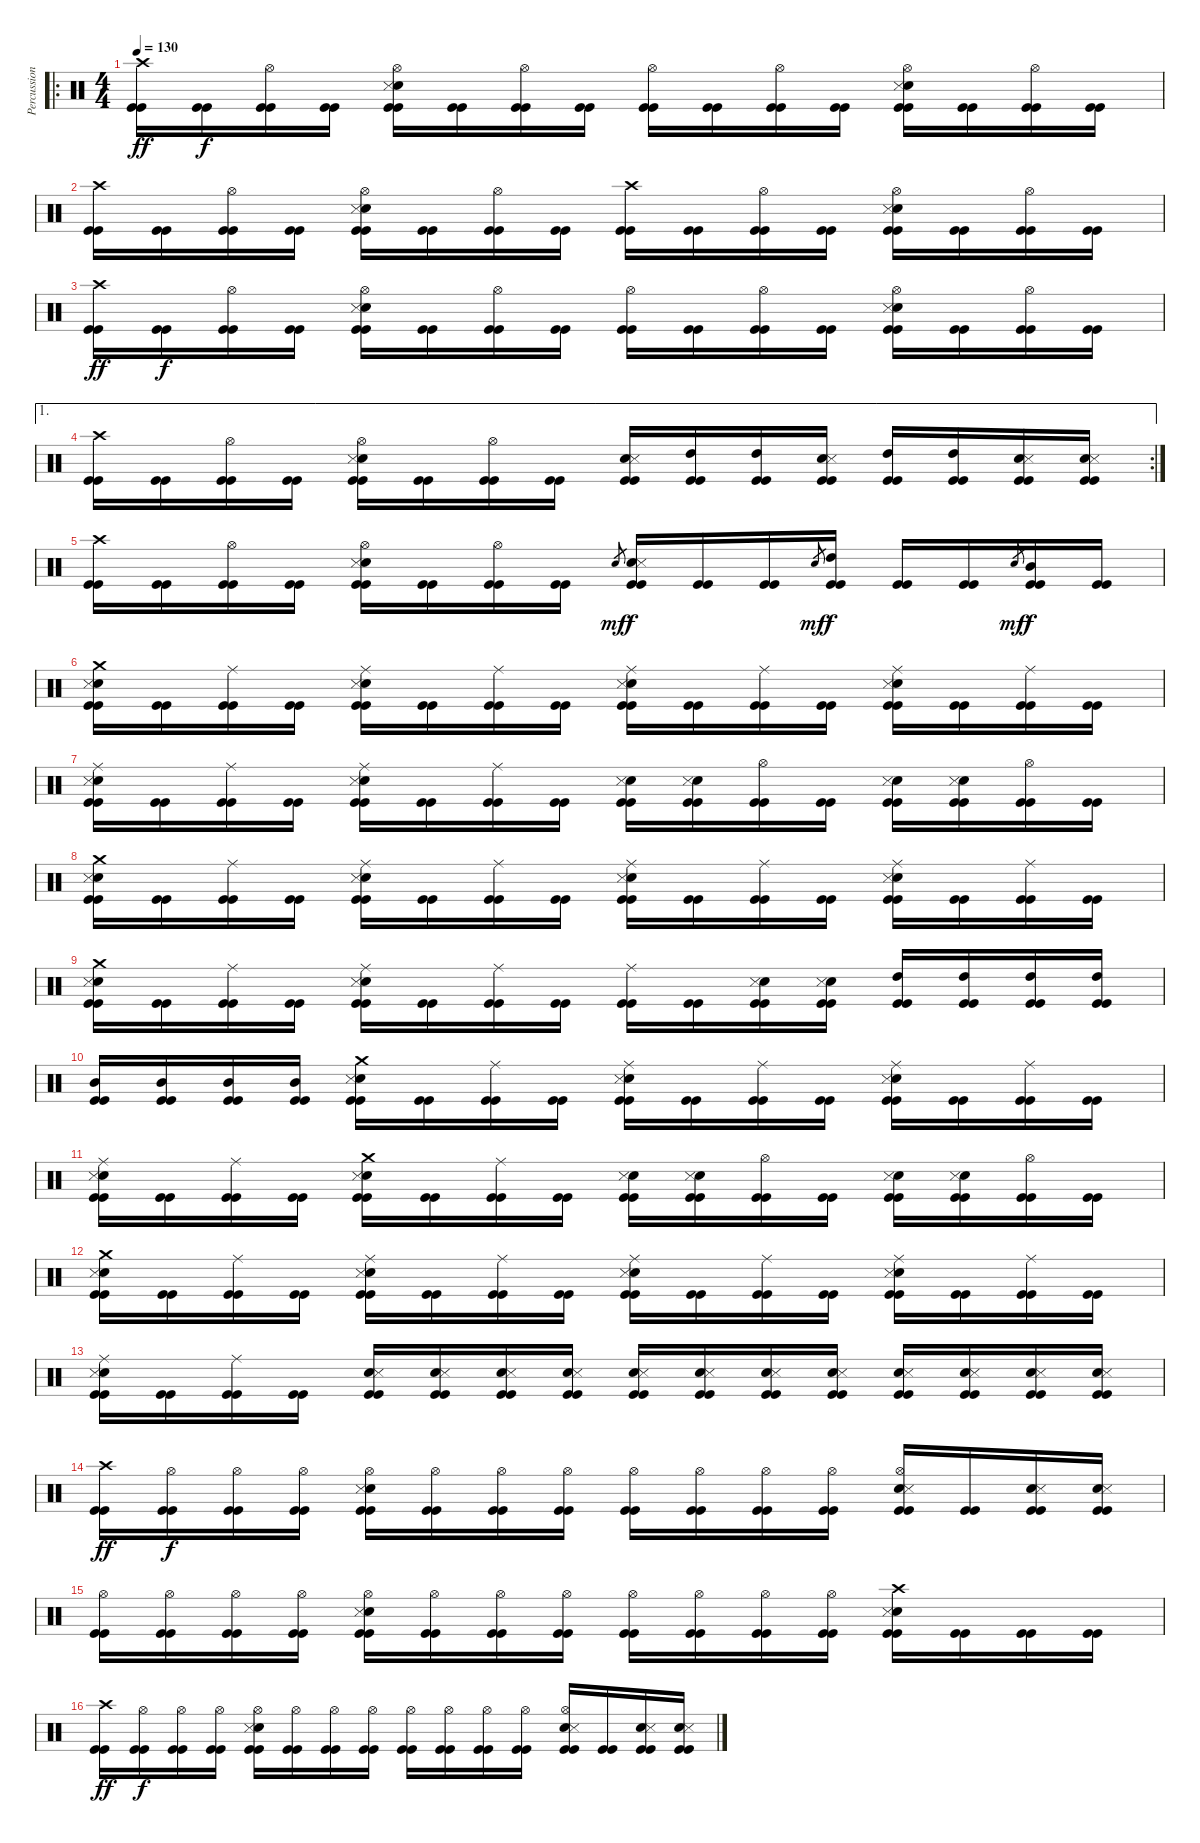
\track ("Percussion" "Percussion") {instrument percussion}
\staff {score}
\articulation defaults
\ro
\ts (4 4)
\tempo 130
\clef neutral
\ks c
("Crash high (hit)" "Kick (hit)" "Kick (hit)").16{dy ff} ("Kick (hit)" "Kick (hit)").16{dy f} ("Hi-Hat (open)" "Kick (hit)" "Kick (hit)").16 ("Kick (hit)" "Kick (hit)").16 ("Snare (hit) 2" "Snare (side stick) 3" "Hi-Hat (open)" "Kick (hit)" "Kick (hit)").16 ("Kick (hit)" "Kick (hit)").16 ("Hi-Hat (open)" "Kick (hit)" "Kick (hit)").16 ("Kick (hit)" "Kick (hit)").16 ("Hi-Hat (open)" "Kick (hit)" "Kick (hit)").16 ("Kick (hit)" "Kick (hit)").16 ("Hi-Hat (open)" "Kick (hit)" "Kick (hit)").16 ("Kick (hit)" "Kick (hit)").16 ("Snare (hit) 2" "Snare (side stick) 3" "Hi-Hat (open)" "Kick (hit)" "Kick (hit)").16 ("Kick (hit)" "Kick (hit)").16 ("Hi-Hat (open)" "Kick (hit)" "Kick (hit)").16 ("Kick (hit)" "Kick (hit)").16 |
("Crash high (hit)" "Kick (hit)" "Kick (hit)").16 ("Kick (hit)" "Kick (hit)").16 ("Hi-Hat (open)" "Kick (hit)" "Kick (hit)").16 ("Kick (hit)" "Kick (hit)").16 ("Snare (hit) 2" "Snare (side stick) 3" "Hi-Hat (open)" "Kick (hit)" "Kick (hit)").16 ("Kick (hit)" "Kick (hit)").16 ("Hi-Hat (open)" "Kick (hit)" "Kick (hit)").16 ("Kick (hit)" "Kick (hit)").16 ("Crash high (hit)" "Kick (hit)" "Kick (hit)").16 ("Kick (hit)" "Kick (hit)").16 ("Hi-Hat (open)" "Kick (hit)" "Kick (hit)").16 ("Kick (hit)" "Kick (hit)").16 ("Snare (hit) 2" "Snare (side stick) 3" "Hi-Hat (open)" "Kick (hit)" "Kick (hit)").16 ("Kick (hit)" "Kick (hit)").16 ("Hi-Hat (open)" "Kick (hit)" "Kick (hit)").16 ("Kick (hit)" "Kick (hit)").16 |
("Crash high (hit)" "Kick (hit)" "Kick (hit)").16{dy ff} ("Kick (hit)" "Kick (hit)").16{dy f} ("Hi-Hat (open)" "Kick (hit)" "Kick (hit)").16 ("Kick (hit)" "Kick (hit)").16 ("Snare (hit) 2" "Snare (side stick) 3" "Hi-Hat (open)" "Kick (hit)" "Kick (hit)").16 ("Kick (hit)" "Kick (hit)").16 ("Hi-Hat (open)" "Kick (hit)" "Kick (hit)").16 ("Kick (hit)" "Kick (hit)").16 ("Hi-Hat (open)" "Kick (hit)" "Kick (hit)").16 ("Kick (hit)" "Kick (hit)").16 ("Hi-Hat (open)" "Kick (hit)" "Kick (hit)").16 ("Kick (hit)" "Kick (hit)").16 ("Snare (hit) 2" "Snare (side stick) 3" "Hi-Hat (open)" "Kick (hit)" "Kick (hit)").16 ("Kick (hit)" "Kick (hit)").16 ("Hi-Hat (open)" "Kick (hit)" "Kick (hit)").16 ("Kick (hit)" "Kick (hit)").16 |
\ae 1
\rc 2
("Crash high (hit)" "Kick (hit)" "Kick (hit)").16 ("Kick (hit)" "Kick (hit)").16 ("Hi-Hat (open)" "Kick (hit)" "Kick (hit)").16 ("Kick (hit)" "Kick (hit)").16 ("Snare (hit) 2" "Snare (side stick) 3" "Hi-Hat (open)" "Kick (hit)" "Kick (hit)").16 ("Kick (hit)" "Kick (hit)").16 ("Hi-Hat (open)" "Kick (hit)" "Kick (hit)").16 ("Kick (hit)" "Kick (hit)").16 ("Snare (hit) 2" "Snare (side stick) 3" "Kick (hit)" "Kick (hit)").16 ("High Tom (hit)" "Kick (hit)" "Kick (hit)").16 ("High Tom (hit)" "Kick (hit)" "Kick (hit)").16 ("Snare (hit) 2" "Snare (side stick) 3" "Kick (hit)" "Kick (hit)").16 ("High Tom (hit)" "Kick (hit)" "Kick (hit)").16 ("High Tom (hit)" "Kick (hit)" "Kick (hit)").16 ("Snare (hit) 2" "Snare (side stick) 3" "Kick (hit)" "Kick (hit)").16 ("Snare (hit) 2" "Snare (side stick) 3" "Kick (hit)" "Kick (hit)").16 |
("Crash high (hit)" "Kick (hit)" "Kick (hit)").16 ("Kick (hit)" "Kick (hit)").16 ("Hi-Hat (open)" "Kick (hit)" "Kick (hit)").16 ("Kick (hit)" "Kick (hit)").16 ("Snare (hit) 2" "Snare (side stick) 3" "Hi-Hat (open)" "Kick (hit)" "Kick (hit)").16 ("Kick (hit)" "Kick (hit)").16 ("Hi-Hat (open)" "Kick (hit)" "Kick (hit)").16 ("Kick (hit)" "Kick (hit)").16 "Snare (hit)".8{gr dy mf} ("Snare (hit) 2" "Snare (side stick) 3" "Kick (hit)" "Kick (hit)").16{dy f} ("Kick (hit)" "Kick (hit)").16 ("Kick (hit)" "Kick (hit)").16 "Snare (hit)".8{gr dy mf} ("High Tom (hit)" "Kick (hit)" "Kick (hit)").16{dy f} ("Kick (hit)" "Kick (hit)").16 ("Kick (hit)" "Kick (hit)").16 "Snare (hit)".8{gr dy mf} ("Mid Tom (hit)" "Kick (hit)" "Kick (hit)").16{dy f} ("Kick (hit)" "Kick (hit)").16 |
("Snare (hit) 2" "Snare (side stick) 3" "Crash medium (hit)" "Kick (hit)" "Kick (hit)").16 ("Kick (hit)" "Kick (hit)").16 ("Ride (middle)" "Kick (hit)" "Kick (hit)").16 ("Kick (hit)" "Kick (hit)").16 ("Snare (hit) 2" "Snare (side stick) 3" "Ride (middle)" "Kick (hit)" "Kick (hit)").16 ("Kick (hit)" "Kick (hit)").16 ("Ride (middle)" "Kick (hit)" "Kick (hit)").16 ("Kick (hit)" "Kick (hit)").16 ("Snare (hit) 2" "Snare (side stick) 3" "Ride (middle)" "Kick (hit)" "Kick (hit)").16 ("Kick (hit)" "Kick (hit)").16 ("Ride (middle)" "Kick (hit)" "Kick (hit)").16 ("Kick (hit)" "Kick (hit)").16 ("Snare (hit) 2" "Snare (side stick) 3" "Ride (middle)" "Kick (hit)" "Kick (hit)").16 ("Kick (hit)" "Kick (hit)").16 ("Ride (middle)" "Kick (hit)" "Kick (hit)").16 ("Kick (hit)" "Kick (hit)").16 |
("Snare (hit) 2" "Snare (side stick) 3" "Ride (middle)" "Kick (hit)" "Kick (hit)").16 ("Kick (hit)" "Kick (hit)").16 ("Ride (middle)" "Kick (hit)" "Kick (hit)").16 ("Kick (hit)" "Kick (hit)").16 ("Snare (hit) 2" "Snare (side stick) 3" "Ride (middle)" "Kick (hit)" "Kick (hit)").16 ("Kick (hit)" "Kick (hit)").16 ("Ride (middle)" "Kick (hit)" "Kick (hit)").16 ("Kick (hit)" "Kick (hit)").16 ("Snare (hit) 2" "Snare (side stick) 3" "Kick (hit)" "Kick (hit)").16 ("Snare (hit) 2" "Snare (side stick) 3" "Kick (hit)" "Kick (hit)").16 ("Hi-Hat (open)" "Kick (hit)" "Kick (hit)").16 ("Kick (hit)" "Kick (hit)").16 ("Snare (hit) 2" "Snare (side stick) 3" "Kick (hit)" "Kick (hit)").16 ("Snare (hit) 2" "Snare (side stick) 3" "Kick (hit)" "Kick (hit)").16 ("Hi-Hat (open)" "Kick (hit)" "Kick (hit)").16 ("Kick (hit)" "Kick (hit)").16 |
("Snare (hit) 2" "Snare (side stick) 3" "Crash medium (hit)" "Kick (hit)" "Kick (hit)").16 ("Kick (hit)" "Kick (hit)").16 ("Ride (middle)" "Kick (hit)" "Kick (hit)").16 ("Kick (hit)" "Kick (hit)").16 ("Snare (hit) 2" "Snare (side stick) 3" "Ride (middle)" "Kick (hit)" "Kick (hit)").16 ("Kick (hit)" "Kick (hit)").16 ("Ride (middle)" "Kick (hit)" "Kick (hit)").16 ("Kick (hit)" "Kick (hit)").16 ("Snare (hit) 2" "Snare (side stick) 3" "Ride (middle)" "Kick (hit)" "Kick (hit)").16 ("Kick (hit)" "Kick (hit)").16 ("Ride (middle)" "Kick (hit)" "Kick (hit)").16 ("Kick (hit)" "Kick (hit)").16 ("Snare (hit) 2" "Snare (side stick) 3" "Ride (middle)" "Kick (hit)" "Kick (hit)").16 ("Kick (hit)" "Kick (hit)").16 ("Ride (middle)" "Kick (hit)" "Kick (hit)").16 ("Kick (hit)" "Kick (hit)").16 |
("Kick (hit)" "Crash medium (hit)" "Snare (hit) 2" "Snare (side stick) 3" "Kick (hit)").16 ("Kick (hit)" "Kick (hit)").16 ("Ride (middle)" "Kick (hit)" "Kick (hit)").16 ("Kick (hit)" "Kick (hit)").16 ("Kick (hit)" "Ride (middle)" "Snare (hit) 2" "Snare (side stick) 3" "Kick (hit)").16 ("Kick (hit)" "Kick (hit)").16 ("Ride (middle)" "Kick (hit)" "Kick (hit)").16 ("Kick (hit)" "Kick (hit)").16 ("Ride (middle)" "Kick (hit)" "Kick (hit)").16 ("Kick (hit)" "Kick (hit)").16 ("Snare (hit) 2" "Snare (side stick) 3" "Kick (hit)" "Kick (hit)").16 ("Snare (hit) 2" "Snare (side stick) 3" "Kick (hit)" "Kick (hit)").16 ("High Tom (hit)" "Kick (hit)" "Kick (hit)").16 ("High Tom (hit)" "Kick (hit)" "Kick (hit)").16 ("High Tom (hit)" "Kick (hit)" "Kick (hit)").16 ("High Tom (hit)" "Kick (hit)" "Kick (hit)").16 |
("Mid Tom (hit)" "Kick (hit)" "Kick (hit)").16 ("Mid Tom (hit)" "Kick (hit)" "Kick (hit)").16 ("Mid Tom (hit)" "Kick (hit)" "Kick (hit)").16 ("Mid Tom (hit)" "Kick (hit)" "Kick (hit)").16 ("Snare (hit) 2" "Snare (side stick) 3" "Crash medium (hit)" "Kick (hit)" "Kick (hit)").16 ("Kick (hit)" "Kick (hit)").16 ("Ride (middle)" "Kick (hit)" "Kick (hit)").16 ("Kick (hit)" "Kick (hit)").16 ("Snare (hit) 2" "Snare (side stick) 3" "Ride (middle)" "Kick (hit)" "Kick (hit)").16 ("Kick (hit)" "Kick (hit)").16 ("Ride (middle)" "Kick (hit)" "Kick (hit)").16 ("Kick (hit)" "Kick (hit)").16 ("Snare (hit) 2" "Snare (side stick) 3" "Ride (middle)" "Kick (hit)" "Kick (hit)").16 ("Kick (hit)" "Kick (hit)").16 ("Ride (middle)" "Kick (hit)" "Kick (hit)").16 ("Kick (hit)" "Kick (hit)").16 |
("Snare (hit) 2" "Snare (side stick) 3" "Ride (middle)" "Kick (hit)" "Kick (hit)").16 ("Kick (hit)" "Kick (hit)").16 ("Ride (middle)" "Kick (hit)" "Kick (hit)").16 ("Kick (hit)" "Kick (hit)").16 ("Snare (hit) 2" "Snare (side stick) 3" "Crash medium (hit)" "Kick (hit)" "Kick (hit)").16 ("Kick (hit)" "Kick (hit)").16 ("Ride (middle)" "Kick (hit)" "Kick (hit)").16 ("Kick (hit)" "Kick (hit)").16 ("Snare (hit) 2" "Snare (side stick) 3" "Kick (hit)" "Kick (hit)").16 ("Snare (hit) 2" "Snare (side stick) 3" "Kick (hit)" "Kick (hit)").16 ("Hi-Hat (open)" "Kick (hit)" "Kick (hit)").16 ("Kick (hit)" "Kick (hit)").16 ("Snare (hit) 2" "Snare (side stick) 3" "Kick (hit)" "Kick (hit)").16 ("Snare (hit) 2" "Snare (side stick) 3" "Kick (hit)" "Kick (hit)").16 ("Hi-Hat (open)" "Kick (hit)" "Kick (hit)").16 ("Kick (hit)" "Kick (hit)").16 |
("Snare (hit) 2" "Snare (side stick) 3" "Crash medium (hit)" "Kick (hit)" "Kick (hit)").16 ("Kick (hit)" "Kick (hit)").16 ("Ride (middle)" "Kick (hit)" "Kick (hit)").16 ("Kick (hit)" "Kick (hit)").16 ("Snare (hit) 2" "Snare (side stick) 3" "Ride (middle)" "Kick (hit)" "Kick (hit)").16 ("Kick (hit)" "Kick (hit)").16 ("Ride (middle)" "Kick (hit)" "Kick (hit)").16 ("Kick (hit)" "Kick (hit)").16 ("Snare (hit) 2" "Snare (side stick) 3" "Ride (middle)" "Kick (hit)" "Kick (hit)").16 ("Kick (hit)" "Kick (hit)").16 ("Ride (middle)" "Kick (hit)" "Kick (hit)").16 ("Kick (hit)" "Kick (hit)").16 ("Snare (hit) 2" "Snare (side stick) 3" "Ride (middle)" "Kick (hit)" "Kick (hit)").16 ("Kick (hit)" "Kick (hit)").16 ("Ride (middle)" "Kick (hit)" "Kick (hit)").16 ("Kick (hit)" "Kick (hit)").16 |
("Snare (hit) 2" "Snare (side stick) 3" "Ride (middle)" "Kick (hit)" "Kick (hit)").16 ("Kick (hit)" "Kick (hit)").16 ("Ride (middle)" "Kick (hit)" "Kick (hit)").16 ("Kick (hit)" "Kick (hit)").16 ("Snare (hit) 2" "Snare (side stick) 3" "Kick (hit)" "Kick (hit)").16 ("Snare (hit) 2" "Snare (side stick) 3" "Kick (hit)" "Kick (hit)").16 ("Snare (hit) 2" "Snare (side stick) 3" "Kick (hit)" "Kick (hit)").16 ("Snare (hit) 2" "Snare (side stick) 3" "Kick (hit)" "Kick (hit)").16 ("Snare (hit) 2" "Snare (side stick) 3" "Kick (hit)" "Kick (hit)").16 ("Snare (hit) 2" "Snare (side stick) 3" "Kick (hit)" "Kick (hit)").16 ("Snare (hit) 2" "Snare (side stick) 3" "Kick (hit)" "Kick (hit)").16 ("Snare (hit) 2" "Snare (side stick) 3" "Kick (hit)" "Kick (hit)").16 ("Snare (hit) 2" "Snare (side stick) 3" "Kick (hit)" "Kick (hit)").16 ("Snare (hit) 2" "Snare (side stick) 3" "Kick (hit)" "Kick (hit)").16 ("Snare (hit) 2" "Snare (side stick) 3" "Kick (hit)" "Kick (hit)").16 ("Snare (hit) 2" "Snare (side stick) 3" "Kick (hit)" "Kick (hit)").16 |
("Crash high (hit)" "Kick (hit)" "Kick (hit)").16{dy ff} ("Hi-Hat (open)" "Kick (hit)" "Kick (hit)").16{dy f} ("Hi-Hat (open)" "Kick (hit)" "Kick (hit)").16 ("Hi-Hat (open)" "Kick (hit)" "Kick (hit)").16 ("Snare (hit) 2" "Snare (side stick) 3" "Hi-Hat (open)" "Kick (hit)" "Kick (hit)").16 ("Hi-Hat (open)" "Kick (hit)" "Kick (hit)").16 ("Hi-Hat (open)" "Kick (hit)" "Kick (hit)").16 ("Hi-Hat (open)" "Kick (hit)" "Kick (hit)").16 ("Hi-Hat (open)" "Kick (hit)" "Kick (hit)").16 ("Hi-Hat (open)" "Kick (hit)" "Kick (hit)").16 ("Hi-Hat (open)" "Kick (hit)" "Kick (hit)").16 ("Hi-Hat (open)" "Kick (hit)" "Kick (hit)").16 ("Snare (hit) 2" "Snare (side stick) 3" "Hi-Hat (open)" "Kick (hit)" "Kick (hit)").16 ("Kick (hit)" "Kick (hit)").16 ("Snare (hit) 2" "Snare (side stick) 3" "Kick (hit)" "Kick (hit)").16 ("Snare (hit) 2" "Snare (side stick) 3" "Kick (hit)" "Kick (hit)").16 |
("Hi-Hat (open)" "Kick (hit)" "Kick (hit)").16 ("Hi-Hat (open)" "Kick (hit)" "Kick (hit)").16 ("Hi-Hat (open)" "Kick (hit)" "Kick (hit)").16 ("Hi-Hat (open)" "Kick (hit)" "Kick (hit)").16 ("Snare (hit) 2" "Snare (side stick) 3" "Hi-Hat (open)" "Kick (hit)" "Kick (hit)").16 ("Hi-Hat (open)" "Kick (hit)" "Kick (hit)").16 ("Hi-Hat (open)" "Kick (hit)" "Kick (hit)").16 ("Hi-Hat (open)" "Kick (hit)" "Kick (hit)").16 ("Hi-Hat (open)" "Kick (hit)" "Kick (hit)").16 ("Hi-Hat (open)" "Kick (hit)" "Kick (hit)").16 ("Hi-Hat (open)" "Kick (hit)" "Kick (hit)").16 ("Hi-Hat (open)" "Kick (hit)" "Kick (hit)").16 ("Snare (hit) 2" "Snare (side stick) 3" "Crash high (hit)" "Kick (hit)" "Kick (hit)").16 ("Kick (hit)" "Kick (hit)").16 ("Kick (hit)" "Kick (hit)").16 ("Kick (hit)" "Kick (hit)").16 |
("Crash high (hit)" "Kick (hit)" "Kick (hit)").16{dy ff} ("Hi-Hat (open)" "Kick (hit)" "Kick (hit)").16{dy f} ("Hi-Hat (open)" "Kick (hit)" "Kick (hit)").16 ("Hi-Hat (open)" "Kick (hit)" "Kick (hit)").16 ("Snare (hit) 2" "Snare (side stick) 3" "Hi-Hat (open)" "Kick (hit)" "Kick (hit)").16 ("Hi-Hat (open)" "Kick (hit)" "Kick (hit)").16 ("Hi-Hat (open)" "Kick (hit)" "Kick (hit)").16 ("Hi-Hat (open)" "Kick (hit)" "Kick (hit)").16 ("Hi-Hat (open)" "Kick (hit)" "Kick (hit)").16 ("Hi-Hat (open)" "Kick (hit)" "Kick (hit)").16 ("Hi-Hat (open)" "Kick (hit)" "Kick (hit)").16 ("Hi-Hat (open)" "Kick (hit)" "Kick (hit)").16 ("Snare (hit) 2" "Snare (side stick) 3" "Hi-Hat (open)" "Kick (hit)" "Kick (hit)").16 ("Kick (hit)" "Kick (hit)").16 ("Snare (hit) 2" "Snare (side stick) 3" "Kick (hit)" "Kick (hit)").16 ("Snare (hit) 2" "Snare (side stick) 3" "Kick (hit)" "Kick (hit)").16
